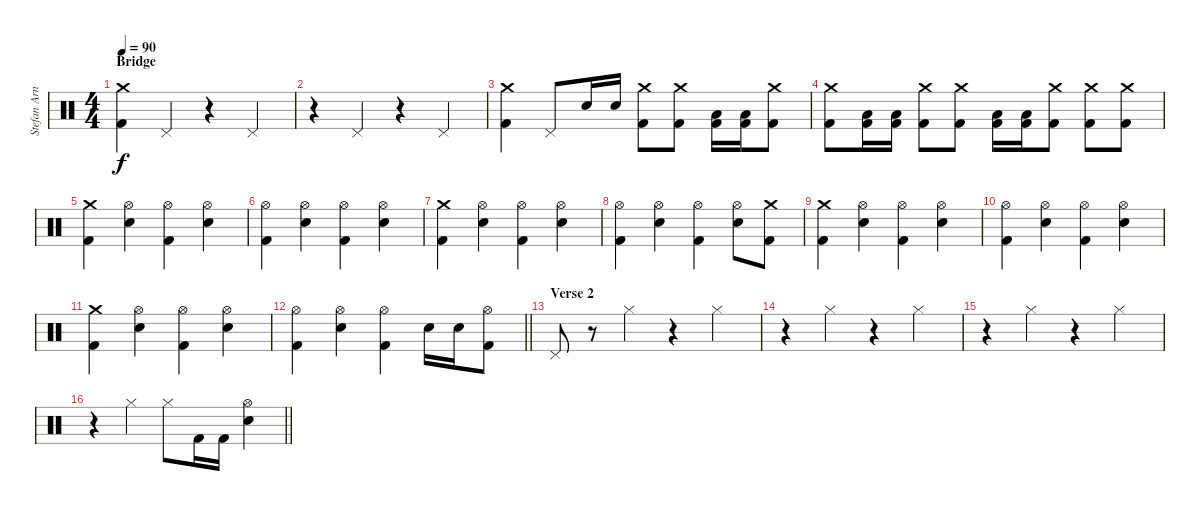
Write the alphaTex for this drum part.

\track ("Stefan Arnold" "Stefan Arn") {instrument percussion}
\staff {score}
\articulation defaults
\ts (4 4)
\section ("" "Bridge")
\tempo 90
\clef neutral
\ks c
("Crash medium (hit)" "Kick (hit) 2").4{dy f} "Pedal Hi-Hat (hit)".4 r.4 "Pedal Hi-Hat (hit)".4 |
r.4 "Pedal Hi-Hat (hit)".4 r.4 "Pedal Hi-Hat (hit)".4 |
("Crash medium (hit)" "Kick (hit) 2").4 "Pedal Hi-Hat (hit)".8 "Electric Snare (hit)".16 "Electric Snare (hit)".16 ("Crash medium (hit)" "Kick (hit) 2").8 ("Crash medium (hit)" "Kick (hit) 2").8 ("Low Tom (hit)" "Kick (hit) 2").16 ("Low Tom (hit)" "Kick (hit) 2").16 ("Crash medium (hit)" "Kick (hit) 2").8 |
("Crash medium (hit)" "Kick (hit) 2").8 ("Low Tom (hit)" "Kick (hit) 2").16 ("Low Tom (hit)" "Kick (hit) 2").16 ("Crash medium (hit)" "Kick (hit) 2").8 ("Crash medium (hit)" "Kick (hit) 2").8 ("Low Tom (hit)" "Kick (hit) 2").16 ("Low Tom (hit)" "Kick (hit) 2").16 ("Crash medium (hit)" "Kick (hit) 2").8 ("Crash medium (hit)" "Kick (hit) 2").8 ("Crash medium (hit)" "Kick (hit) 2").8 |
("Crash medium (hit)" "Kick (hit) 2").4 ("Hi-Hat (open)" "Electric Snare (hit)").4 ("Hi-Hat (open)" "Kick (hit) 2").4 ("Hi-Hat (open)" "Electric Snare (hit)").4 |
("Hi-Hat (open)" "Kick (hit) 2").4 ("Hi-Hat (open)" "Electric Snare (hit)").4 ("Hi-Hat (open)" "Kick (hit) 2").4 ("Hi-Hat (open)" "Electric Snare (hit)").4 |
("Crash medium (hit)" "Kick (hit) 2").4 ("Hi-Hat (open)" "Electric Snare (hit)").4 ("Hi-Hat (open)" "Kick (hit) 2").4 ("Hi-Hat (open)" "Electric Snare (hit)").4 |
("Hi-Hat (open)" "Kick (hit) 2").4 ("Hi-Hat (open)" "Electric Snare (hit)").4 ("Hi-Hat (open)" "Kick (hit) 2").4 ("Hi-Hat (open)" "Electric Snare (hit)").8 ("Crash medium (hit)" "Kick (hit) 2").8 |
("Crash medium (hit)" "Kick (hit) 2").4 ("Hi-Hat (open)" "Electric Snare (hit)").4 ("Hi-Hat (open)" "Kick (hit) 2").4 ("Hi-Hat (open)" "Electric Snare (hit)").4 |
("Hi-Hat (open)" "Kick (hit) 2").4 ("Hi-Hat (open)" "Electric Snare (hit)").4 ("Hi-Hat (open)" "Kick (hit) 2").4 ("Hi-Hat (open)" "Electric Snare (hit)").4 |
("Crash medium (hit)" "Kick (hit) 2").4 ("Hi-Hat (open)" "Electric Snare (hit)").4 ("Hi-Hat (open)" "Kick (hit) 2").4 ("Hi-Hat (open)" "Electric Snare (hit)").4 |
\barLineRight lightlight
("Hi-Hat (open)" "Kick (hit) 2").4 ("Hi-Hat (open)" "Electric Snare (hit)").4 ("Hi-Hat (open)" "Kick (hit) 2").4 "Electric Snare (hit)".16 "Electric Snare (hit)".16 ("Hi-Hat (open)" "Kick (hit) 2").8 |
\section ("" "Verse 2")
"Pedal Hi-Hat (hit)".8 r.8 "Hi-Hat (closed)".4 r.4 "Hi-Hat (closed)".4 |
r.4 "Hi-Hat (closed)".4 r.4 "Hi-Hat (closed)".4 |
r.4 "Hi-Hat (closed)".4 r.4 "Hi-Hat (closed)".4 |
\barLineRight lightlight
r.4 "Hi-Hat (closed)".4 "Hi-Hat (closed)".8 "Kick (hit) 2".16 "Kick (hit) 2".16 ("Hi-Hat (open)" "Electric Snare (hit)").4
